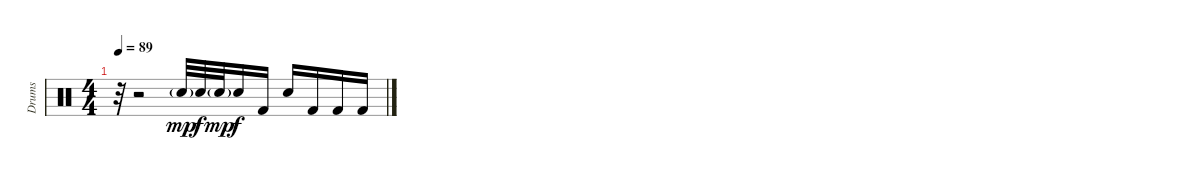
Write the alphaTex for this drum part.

\track ("Drums" "Drums") {instrument percussion}
\staff {score}
\articulation defaults
\ts (4 4)
\tempo 89
\clef neutral
\ks c
r.32{dy mp} r.2 "Snare (hit) 2"{g}.32 "Snare (hit) 2".32{dy f} "Snare (hit) 2"{g}.32{dy mp} "Snare (hit) 2".16{dy f} "Kick (hit) 2".16 "Snare (hit) 2".16 "Kick (hit) 2".16 "Kick (hit) 2".16 "Kick (hit) 2".16
